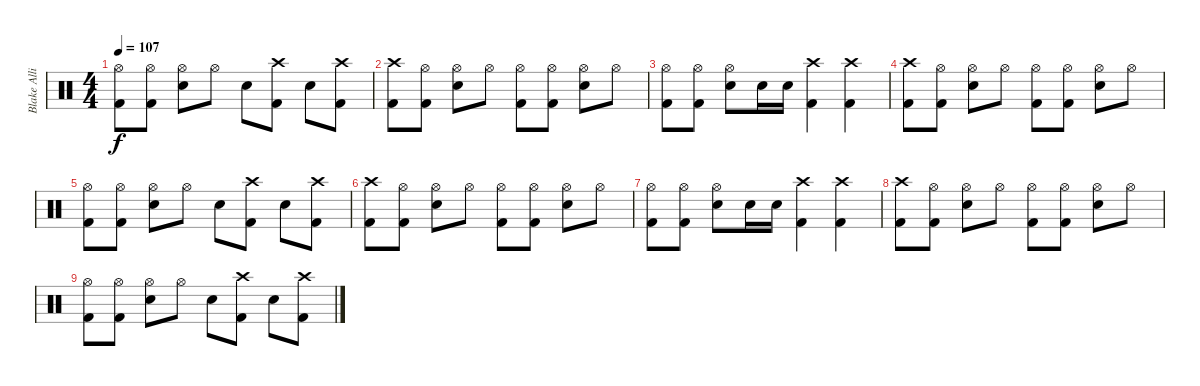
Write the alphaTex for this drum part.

\track ("Blake Allison" "Blake Alli") {instrument percussion}
\staff {score}
\articulation defaults
\ts (4 4)
\tempo 107
\clef neutral
\ks c
("Hi-Hat (open)" "Kick (hit) 2").8{dy f} ("Hi-Hat (open)" "Kick (hit) 2").8 ("Hi-Hat (open)" "Electric Snare (hit)").8 "Hi-Hat (open)".8 "Electric Snare (hit)".8 ("Crash high (hit)" "Kick (hit) 2").8 "Electric Snare (hit)".8 ("Crash high (hit)" "Kick (hit) 2").8 |
("Crash high (hit)" "Kick (hit) 2").8 ("Hi-Hat (open)" "Kick (hit) 2").8 ("Hi-Hat (open)" "Electric Snare (hit)").8 "Hi-Hat (open)".8 ("Hi-Hat (open)" "Kick (hit) 2").8 ("Hi-Hat (open)" "Kick (hit) 2").8 ("Hi-Hat (open)" "Electric Snare (hit)").8 "Hi-Hat (open)".8 |
("Hi-Hat (open)" "Kick (hit) 2").8 ("Hi-Hat (open)" "Kick (hit) 2").8 ("Hi-Hat (open)" "Electric Snare (hit)").8 "Electric Snare (hit)".16 "Electric Snare (hit)".16 ("Crash high (hit)" "Kick (hit) 2").4 ("Crash high (hit)" "Kick (hit) 2").4 |
("Crash high (hit)" "Kick (hit) 2").8 ("Hi-Hat (open)" "Kick (hit) 2").8 ("Hi-Hat (open)" "Electric Snare (hit)").8 "Hi-Hat (open)".8 ("Hi-Hat (open)" "Kick (hit) 2").8 ("Hi-Hat (open)" "Kick (hit) 2").8 ("Hi-Hat (open)" "Electric Snare (hit)").8 "Hi-Hat (open)".8 |
("Hi-Hat (open)" "Kick (hit) 2").8 ("Hi-Hat (open)" "Kick (hit) 2").8 ("Hi-Hat (open)" "Electric Snare (hit)").8 "Hi-Hat (open)".8 "Electric Snare (hit)".8 ("Crash high (hit)" "Kick (hit) 2").8 "Electric Snare (hit)".8 ("Crash high (hit)" "Kick (hit) 2").8 |
("Crash high (hit)" "Kick (hit) 2").8 ("Hi-Hat (open)" "Kick (hit) 2").8 ("Hi-Hat (open)" "Electric Snare (hit)").8 "Hi-Hat (open)".8 ("Hi-Hat (open)" "Kick (hit) 2").8 ("Hi-Hat (open)" "Kick (hit) 2").8 ("Hi-Hat (open)" "Electric Snare (hit)").8 "Hi-Hat (open)".8 |
("Hi-Hat (open)" "Kick (hit) 2").8 ("Hi-Hat (open)" "Kick (hit) 2").8 ("Hi-Hat (open)" "Electric Snare (hit)").8 "Electric Snare (hit)".16 "Electric Snare (hit)".16 ("Crash high (hit)" "Kick (hit) 2").4 ("Crash high (hit)" "Kick (hit) 2").4 |
("Crash high (hit)" "Kick (hit) 2").8 ("Hi-Hat (open)" "Kick (hit) 2").8 ("Hi-Hat (open)" "Electric Snare (hit)").8 "Hi-Hat (open)".8 ("Hi-Hat (open)" "Kick (hit) 2").8 ("Hi-Hat (open)" "Kick (hit) 2").8 ("Hi-Hat (open)" "Electric Snare (hit)").8 "Hi-Hat (open)".8 |
("Hi-Hat (open)" "Kick (hit) 2").8 ("Hi-Hat (open)" "Kick (hit) 2").8 ("Hi-Hat (open)" "Electric Snare (hit)").8 "Hi-Hat (open)".8 "Electric Snare (hit)".8 ("Crash high (hit)" "Kick (hit) 2").8 "Electric Snare (hit)".8 ("Crash high (hit)" "Kick (hit) 2").8
